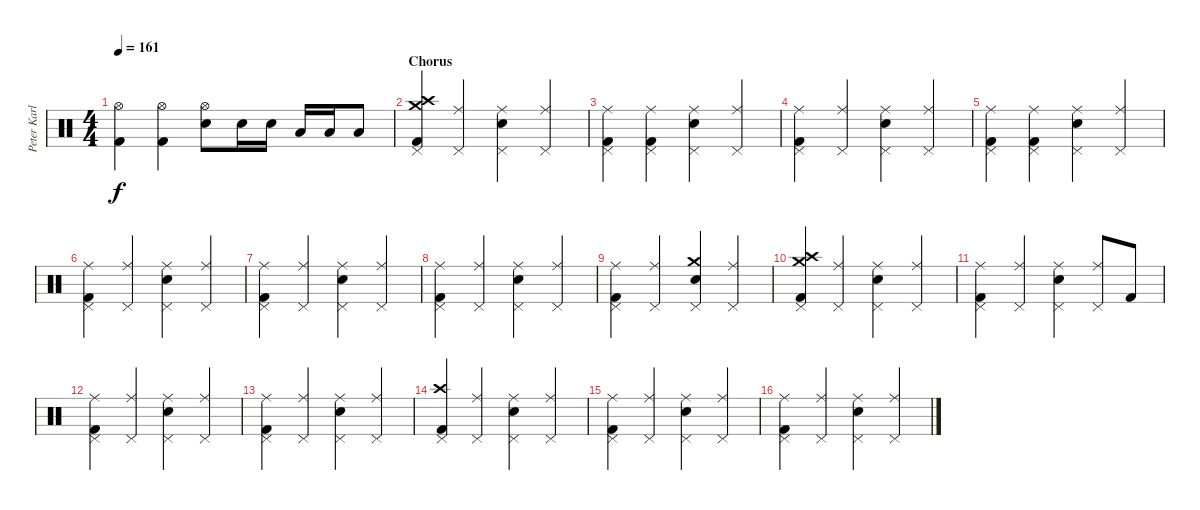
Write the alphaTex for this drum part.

\track ("Peter Karlsson" "Peter Karl") {instrument percussion}
\staff {score}
\articulation defaults
\ts (4 4)
\tempo 161
\clef neutral
\ks c
("Hi-Hat (open)" "Kick (hit) 2").4{dy f} ("Hi-Hat (open)" "Kick (hit) 2").4 ("Hi-Hat (open)" "Snare (hit) 2").8 "Snare (hit) 2".16 "Snare (hit) 2".16 "Low Tom (hit)".16 "Low Tom (hit)".16 "Low Tom (hit)".8 |
\section ("" "Chorus")
("Crash high (hit)" "Crash medium (hit)" "Pedal Hi-Hat (hit)" "Kick (hit) 2").4 ("Ride (middle)" "Pedal Hi-Hat (hit)").4 ("Ride (middle)" "Snare (hit) 2" "Pedal Hi-Hat (hit)").4 ("Ride (middle)" "Pedal Hi-Hat (hit)").4 |
("Ride (middle)" "Pedal Hi-Hat (hit)" "Kick (hit) 2").4 ("Ride (middle)" "Pedal Hi-Hat (hit)" "Kick (hit) 2").4 ("Ride (middle)" "Snare (hit) 2" "Pedal Hi-Hat (hit)").4 ("Ride (middle)" "Pedal Hi-Hat (hit)").4 |
("Ride (middle)" "Pedal Hi-Hat (hit)" "Kick (hit) 2").4 ("Ride (middle)" "Pedal Hi-Hat (hit)").4 ("Ride (middle)" "Snare (hit) 2" "Pedal Hi-Hat (hit)").4 ("Ride (middle)" "Pedal Hi-Hat (hit)").4 |
("Ride (middle)" "Pedal Hi-Hat (hit)" "Kick (hit) 2").4 ("Ride (middle)" "Pedal Hi-Hat (hit)" "Kick (hit) 2").4 ("Ride (middle)" "Snare (hit) 2" "Pedal Hi-Hat (hit)").4 ("Ride (middle)" "Pedal Hi-Hat (hit)").4 |
("Ride (middle)" "Pedal Hi-Hat (hit)" "Kick (hit) 2").4 ("Ride (middle)" "Pedal Hi-Hat (hit)").4 ("Ride (middle)" "Snare (hit) 2" "Pedal Hi-Hat (hit)").4 ("Ride (middle)" "Pedal Hi-Hat (hit)").4 |
("Ride (middle)" "Pedal Hi-Hat (hit)" "Kick (hit) 2").4 ("Ride (middle)" "Pedal Hi-Hat (hit)").4 ("Ride (middle)" "Snare (hit) 2" "Pedal Hi-Hat (hit)").4 ("Ride (middle)" "Pedal Hi-Hat (hit)").4 |
("Ride (middle)" "Pedal Hi-Hat (hit)" "Kick (hit) 2").4 ("Ride (middle)" "Pedal Hi-Hat (hit)").4 ("Ride (middle)" "Snare (hit) 2" "Pedal Hi-Hat (hit)").4 ("Ride (middle)" "Pedal Hi-Hat (hit)").4 |
("Ride (middle)" "Pedal Hi-Hat (hit)" "Kick (hit) 2").4 ("Ride (middle)" "Pedal Hi-Hat (hit)").4 ("Crash medium (hit)" "Snare (hit) 2" "Pedal Hi-Hat (hit)").4 ("Ride (middle)" "Pedal Hi-Hat (hit)").4 |
("Crash high (hit)" "Crash medium (hit)" "Pedal Hi-Hat (hit)" "Kick (hit) 2").4 ("Ride (middle)" "Pedal Hi-Hat (hit)").4 ("Ride (middle)" "Snare (hit) 2" "Pedal Hi-Hat (hit)").4 ("Ride (middle)" "Pedal Hi-Hat (hit)").4 |
("Ride (middle)" "Pedal Hi-Hat (hit)" "Kick (hit) 2").4 ("Ride (middle)" "Pedal Hi-Hat (hit)").4 ("Ride (middle)" "Snare (hit) 2" "Pedal Hi-Hat (hit)").4 ("Ride (middle)" "Pedal Hi-Hat (hit)").8 "Kick (hit) 2".8 |
("Ride (middle)" "Pedal Hi-Hat (hit)" "Kick (hit) 2").4 ("Ride (middle)" "Pedal Hi-Hat (hit)").4 ("Ride (middle)" "Snare (hit) 2" "Pedal Hi-Hat (hit)").4 ("Ride (middle)" "Pedal Hi-Hat (hit)").4 |
("Ride (middle)" "Pedal Hi-Hat (hit)" "Kick (hit) 2").4 ("Ride (middle)" "Pedal Hi-Hat (hit)").4 ("Ride (middle)" "Snare (hit) 2" "Pedal Hi-Hat (hit)").4 ("Ride (middle)" "Pedal Hi-Hat (hit)").4 |
("Crash high (hit)" "Pedal Hi-Hat (hit)" "Kick (hit) 2").4 ("Ride (middle)" "Pedal Hi-Hat (hit)").4 ("Ride (middle)" "Snare (hit) 2" "Pedal Hi-Hat (hit)").4 ("Ride (middle)" "Pedal Hi-Hat (hit)").4 |
("Ride (middle)" "Pedal Hi-Hat (hit)" "Kick (hit) 2").4 ("Ride (middle)" "Pedal Hi-Hat (hit)").4 ("Ride (middle)" "Snare (hit) 2" "Pedal Hi-Hat (hit)").4 ("Ride (middle)" "Pedal Hi-Hat (hit)").4 |
("Ride (middle)" "Pedal Hi-Hat (hit)" "Kick (hit) 2").4 ("Ride (middle)" "Pedal Hi-Hat (hit)").4 ("Ride (middle)" "Snare (hit) 2" "Pedal Hi-Hat (hit)").4 ("Ride (middle)" "Pedal Hi-Hat (hit)").4
